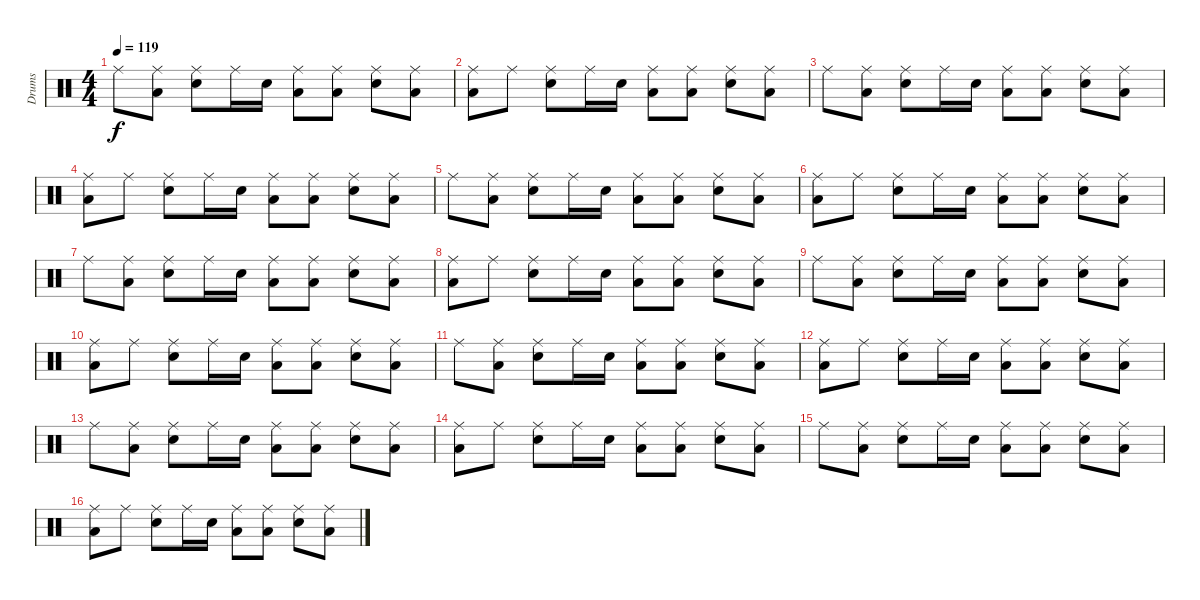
\track ("Drums" "Drums") {instrument percussion}
\staff {score}
\articulation defaults
\ts (4 4)
\tempo 119
\clef neutral
\ks c "Ride (middle)".8{dy f}
("Ride (middle)" "Low Floor Tom (hit)").8 ("Ride (middle)" "Electric Snare (hit)").8 "Ride (middle)".16 "Electric Snare (hit)".16 ("Ride (middle)" "Low Floor Tom (hit)").8 ("Ride (middle)" "Low Floor Tom (hit)").8 ("Ride (middle)" "Electric Snare (hit)").8 ("Ride (middle)" "Low Floor Tom (hit)").8 |
("Ride (middle)" "Low Floor Tom (hit)").8 "Ride (middle)".8 ("Ride (middle)" "Electric Snare (hit)").8 "Ride (middle)".16 "Electric Snare (hit)".16 ("Ride (middle)" "Low Floor Tom (hit)").8 ("Ride (middle)" "Low Floor Tom (hit)").8 ("Ride (middle)" "Electric Snare (hit)").8 ("Ride (middle)" "Low Floor Tom (hit)").8 |
"Ride (middle)".8 ("Ride (middle)" "Low Floor Tom (hit)").8 ("Ride (middle)" "Electric Snare (hit)").8 "Ride (middle)".16 "Electric Snare (hit)".16 ("Ride (middle)" "Low Floor Tom (hit)").8 ("Ride (middle)" "Low Floor Tom (hit)").8 ("Ride (middle)" "Electric Snare (hit)").8 ("Ride (middle)" "Low Floor Tom (hit)").8 |
("Ride (middle)" "Low Floor Tom (hit)").8 "Ride (middle)".8 ("Ride (middle)" "Electric Snare (hit)").8 "Ride (middle)".16 "Electric Snare (hit)".16 ("Ride (middle)" "Low Floor Tom (hit)").8 ("Ride (middle)" "Low Floor Tom (hit)").8 ("Ride (middle)" "Electric Snare (hit)").8 ("Ride (middle)" "Low Floor Tom (hit)").8 |
"Ride (middle)".8 ("Ride (middle)" "Low Floor Tom (hit)").8 ("Ride (middle)" "Electric Snare (hit)").8 "Ride (middle)".16 "Electric Snare (hit)".16 ("Ride (middle)" "Low Floor Tom (hit)").8 ("Ride (middle)" "Low Floor Tom (hit)").8 ("Ride (middle)" "Electric Snare (hit)").8 ("Ride (middle)" "Low Floor Tom (hit)").8 |
("Ride (middle)" "Low Floor Tom (hit)").8 "Ride (middle)".8 ("Ride (middle)" "Electric Snare (hit)").8 "Ride (middle)".16 "Electric Snare (hit)".16 ("Ride (middle)" "Low Floor Tom (hit)").8 ("Ride (middle)" "Low Floor Tom (hit)").8 ("Ride (middle)" "Electric Snare (hit)").8 ("Ride (middle)" "Low Floor Tom (hit)").8 |
"Ride (middle)".8 ("Ride (middle)" "Low Floor Tom (hit)").8 ("Ride (middle)" "Electric Snare (hit)").8 "Ride (middle)".16 "Electric Snare (hit)".16 ("Ride (middle)" "Low Floor Tom (hit)").8 ("Ride (middle)" "Low Floor Tom (hit)").8 ("Ride (middle)" "Electric Snare (hit)").8 ("Ride (middle)" "Low Floor Tom (hit)").8 |
("Ride (middle)" "Low Floor Tom (hit)").8 "Ride (middle)".8 ("Ride (middle)" "Electric Snare (hit)").8 "Ride (middle)".16 "Electric Snare (hit)".16 ("Ride (middle)" "Low Floor Tom (hit)").8 ("Ride (middle)" "Low Floor Tom (hit)").8 ("Ride (middle)" "Electric Snare (hit)").8 ("Ride (middle)" "Low Floor Tom (hit)").8 |
"Ride (middle)".8 ("Ride (middle)" "Low Floor Tom (hit)").8 ("Ride (middle)" "Electric Snare (hit)").8 "Ride (middle)".16 "Electric Snare (hit)".16 ("Ride (middle)" "Low Floor Tom (hit)").8 ("Ride (middle)" "Low Floor Tom (hit)").8 ("Ride (middle)" "Electric Snare (hit)").8 ("Ride (middle)" "Low Floor Tom (hit)").8 |
("Ride (middle)" "Low Floor Tom (hit)").8 "Ride (middle)".8 ("Ride (middle)" "Electric Snare (hit)").8 "Ride (middle)".16 "Electric Snare (hit)".16 ("Ride (middle)" "Low Floor Tom (hit)").8 ("Ride (middle)" "Low Floor Tom (hit)").8 ("Ride (middle)" "Electric Snare (hit)").8 ("Ride (middle)" "Low Floor Tom (hit)").8 |
"Ride (middle)".8 ("Ride (middle)" "Low Floor Tom (hit)").8 ("Ride (middle)" "Electric Snare (hit)").8 "Ride (middle)".16 "Electric Snare (hit)".16 ("Ride (middle)" "Low Floor Tom (hit)").8 ("Ride (middle)" "Low Floor Tom (hit)").8 ("Ride (middle)" "Electric Snare (hit)").8 ("Ride (middle)" "Low Floor Tom (hit)").8 |
("Ride (middle)" "Low Floor Tom (hit)").8 "Ride (middle)".8 ("Ride (middle)" "Electric Snare (hit)").8 "Ride (middle)".16 "Electric Snare (hit)".16 ("Ride (middle)" "Low Floor Tom (hit)").8 ("Ride (middle)" "Low Floor Tom (hit)").8 ("Ride (middle)" "Electric Snare (hit)").8 ("Ride (middle)" "Low Floor Tom (hit)").8 |
"Ride (middle)".8 ("Ride (middle)" "Low Floor Tom (hit)").8 ("Ride (middle)" "Electric Snare (hit)").8 "Ride (middle)".16 "Electric Snare (hit)".16 ("Ride (middle)" "Low Floor Tom (hit)").8 ("Ride (middle)" "Low Floor Tom (hit)").8 ("Ride (middle)" "Electric Snare (hit)").8 ("Ride (middle)" "Low Floor Tom (hit)").8 |
("Ride (middle)" "Low Floor Tom (hit)").8 "Ride (middle)".8 ("Ride (middle)" "Electric Snare (hit)").8 "Ride (middle)".16 "Electric Snare (hit)".16 ("Ride (middle)" "Low Floor Tom (hit)").8 ("Ride (middle)" "Low Floor Tom (hit)").8 ("Ride (middle)" "Electric Snare (hit)").8 ("Ride (middle)" "Low Floor Tom (hit)").8 |
"Ride (middle)".8 ("Ride (middle)" "Low Floor Tom (hit)").8 ("Ride (middle)" "Electric Snare (hit)").8 "Ride (middle)".16 "Electric Snare (hit)".16 ("Ride (middle)" "Low Floor Tom (hit)").8 ("Ride (middle)" "Low Floor Tom (hit)").8 ("Ride (middle)" "Electric Snare (hit)").8 ("Ride (middle)" "Low Floor Tom (hit)").8 |
("Ride (middle)" "Low Floor Tom (hit)").8 "Ride (middle)".8 ("Ride (middle)" "Electric Snare (hit)").8 "Ride (middle)".16 "Electric Snare (hit)".16 ("Ride (middle)" "Low Floor Tom (hit)").8 ("Ride (middle)" "Low Floor Tom (hit)").8 ("Ride (middle)" "Electric Snare (hit)").8 ("Ride (middle)" "Low Floor Tom (hit)").8
